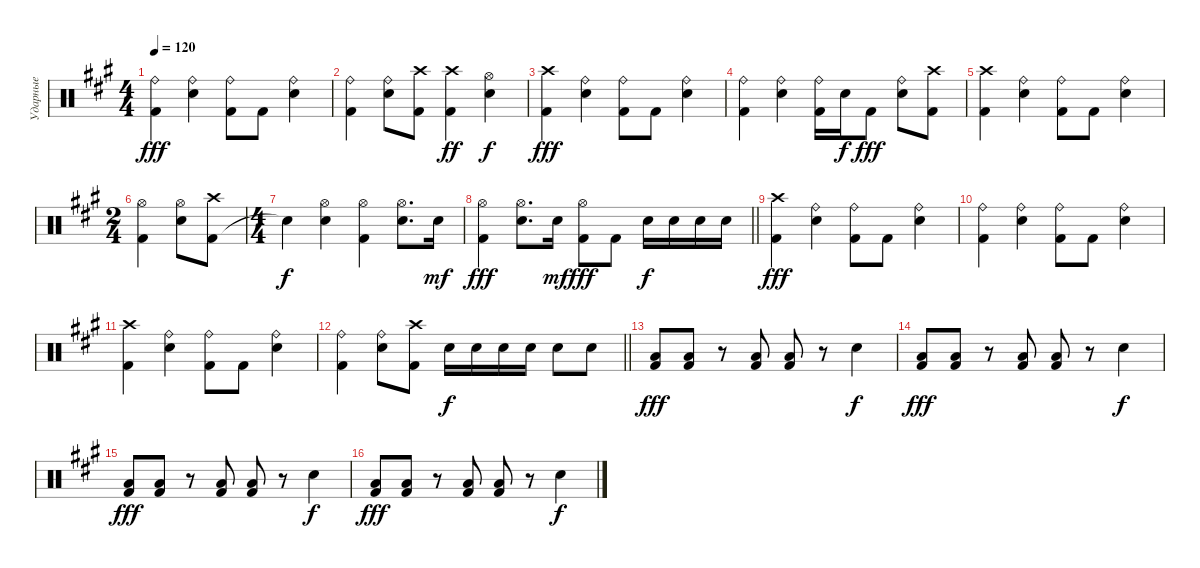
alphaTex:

\track ("Ударные" "Ударные") {instrument percussion}
\staff {score}
\articulation defaults
\ts (4 4)
\tempo 120
\clef neutral
\ks a
("Kick (hit) 2" "Ride (bell)").4{dy fff} ("Snare (hit) 2" "Ride (bell)").4 ("Kick (hit) 2" "Ride (bell)").8 "Kick (hit) 2".8 ("Snare (hit) 2" "Ride (bell)").4 |
("Kick (hit) 2" "Ride (bell)").4 ("Snare (hit) 2" "Ride (bell)").8 ("Kick (hit) 2" "Crash high (hit)").8 ("Kick (hit) 2" "Crash high (hit)").4{dy ff} ("Snare (hit) 2" "Hi-Hat (open)").4{dy f} |
("Kick (hit) 2" "Crash high (hit)").4{dy fff} ("Snare (hit) 2" "Ride (bell)").4 ("Kick (hit) 2" "Ride (bell)").8 "Kick (hit) 2".8 ("Snare (hit) 2" "Ride (bell)").4 |
("Kick (hit) 2" "Ride (bell)").4 ("Snare (hit) 2" "Ride (bell)").4 ("Kick (hit) 2" "Ride (bell)").16 "Snare (hit) 2".16{dy f} "Kick (hit) 2".8{dy fff} ("Snare (hit) 2" "Ride (bell)").8 ("Kick (hit) 2" "Crash high (hit)").8 |
("Kick (hit) 2" "Crash high (hit)").4 ("Snare (hit) 2" "Ride (bell)").4 ("Kick (hit) 2" "Ride (bell)").8 "Kick (hit) 2".8 ("Snare (hit) 2" "Ride (bell)").4 |
\ts (2 4)
("Kick (hit) 2" "Hi-Hat (open)").4 ("Snare (hit) 2" "Hi-Hat (open)").8 ("Kick (hit) 2" "Crash high (hit)").8 |
\ts (4 4)
"Snare (hit)"{t}.4{dy f} ("Snare (hit) 2" "Hi-Hat (open)").4 ("Kick (hit) 2" "Hi-Hat (open)").4 ("Snare (hit) 2" "Hi-Hat (open)").8{d} "Snare (hit) 2".16{dy mf} |
\barLineRight lightlight
("Kick (hit) 2" "Hi-Hat (open)").4{dy fff} ("Snare (hit) 2" "Hi-Hat (open)").8{d} "Snare (hit) 2".16{dy mf} ("Kick (hit) 2" "Hi-Hat (open)").8{dy fff} "Kick (hit) 2".8 "Snare (hit) 2".16{dy f} "Snare (hit) 2".16 "Snare (hit) 2".16 "Snare (hit) 2".16 |
("Kick (hit) 2" "Crash high (hit)").4{dy fff} ("Snare (hit) 2" "Ride (bell)").4 ("Kick (hit) 2" "Ride (bell)").8 "Kick (hit) 2".8 ("Snare (hit) 2" "Ride (bell)").4 |
("Kick (hit) 2" "Ride (bell)").4 ("Snare (hit) 2" "Ride (bell)").4 ("Kick (hit) 2" "Ride (bell)").8 "Kick (hit) 2".8 ("Snare (hit) 2" "Ride (bell)").4 |
("Kick (hit) 2" "Crash high (hit)").4 ("Snare (hit) 2" "Ride (bell)").4 ("Kick (hit) 2" "Ride (bell)").8 "Kick (hit) 2".8 ("Snare (hit) 2" "Ride (bell)").4 |
\barLineRight lightlight
("Kick (hit) 2" "Ride (bell)").4 ("Snare (hit) 2" "Ride (bell)").8 ("Kick (hit) 2" "Crash high (hit)").8 "Snare (hit) 2".16{dy f} "Snare (hit) 2".16 "Snare (hit) 2".16 "Snare (hit) 2".16 "Snare (hit) 2".8 "Snare (hit) 2".8 |
("Kick (hit) 2" "Low Floor Tom (hit)").8{dy fff} ("Kick (hit) 2" "Low Floor Tom (hit)").8 r.8 ("Kick (hit) 2" "Low Floor Tom (hit)").8 ("Kick (hit) 2" "Low Floor Tom (hit)").8 r.8 "Snare (hit) 2".4{dy f} |
("Kick (hit) 2" "Low Floor Tom (hit)").8{dy fff} ("Kick (hit) 2" "Low Floor Tom (hit)").8 r.8 ("Kick (hit) 2" "Low Floor Tom (hit)").8 ("Kick (hit) 2" "Low Floor Tom (hit)").8 r.8 "Snare (hit) 2".4{dy f} |
("Kick (hit) 2" "Low Floor Tom (hit)").8{dy fff} ("Kick (hit) 2" "Low Floor Tom (hit)").8 r.8 ("Kick (hit) 2" "Low Floor Tom (hit)").8 ("Kick (hit) 2" "Low Floor Tom (hit)").8 r.8 "Snare (hit) 2".4{dy f} |
("Kick (hit) 2" "Low Floor Tom (hit)").8{dy fff} ("Kick (hit) 2" "Low Floor Tom (hit)").8 r.8 ("Kick (hit) 2" "Low Floor Tom (hit)").8 ("Kick (hit) 2" "Low Floor Tom (hit)").8 r.8 "Snare (hit) 2".4{dy f}
